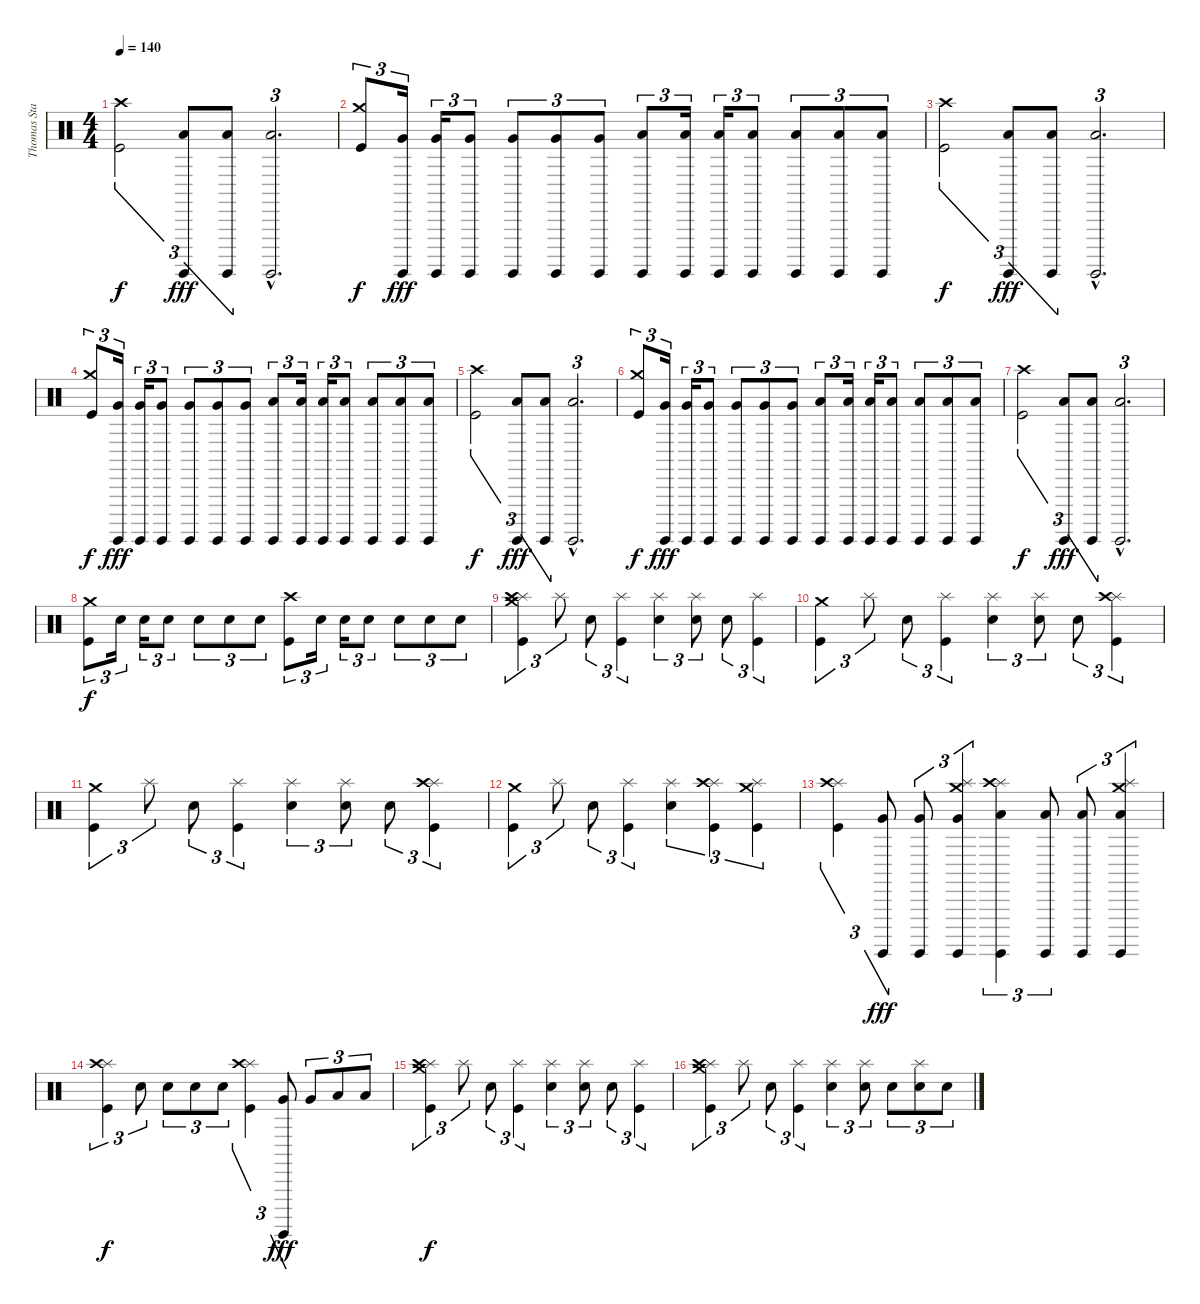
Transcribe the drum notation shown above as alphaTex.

\track ("Thomas Stauch" "Thomas Sta") {instrument percussion}
\staff {score}
\articulation defaults
\ts (4 4)
\tempo 140
\clef neutral
\ks c
("Crash high (hit)" "Kick (hit)").2{tu (3 2) dy f} ("Surdo (hit)" "Low Floor Tom (hit)").8{tu (3 2) dy fff} ("Surdo (hit)" "Low Floor Tom (hit)").8{tu (3 2)} ("Surdo (hit)"{hac} "Low Floor Tom (hit)"{hac}).2{d tu (3 2)} |
("Crash medium (hit)" "Kick (hit)").8{tu (3 2) dy f} ("Surdo (hit)" "Very Low Tom (hit)").16{tu (3 2) dy fff} ("Surdo (hit)" "Very Low Tom (hit)").16{tu (3 2)} ("Surdo (hit)" "Very Low Tom (hit)").8{tu (3 2)} ("Surdo (hit)" "Very Low Tom (hit)").8{tu (3 2)} ("Surdo (hit)" "Very Low Tom (hit)").8{tu (3 2)} ("Surdo (hit)" "Very Low Tom (hit)").8{tu (3 2)} ("Surdo (hit)" "Low Floor Tom (hit)").8{tu (3 2)} ("Surdo (hit)" "Low Floor Tom (hit)").16{tu (3 2)} ("Surdo (hit)" "Low Floor Tom (hit)").16{tu (3 2)} ("Surdo (hit)" "Low Floor Tom (hit)").8{tu (3 2)} ("Surdo (hit)" "Low Floor Tom (hit)").8{tu (3 2)} ("Surdo (hit)" "Low Floor Tom (hit)").8{tu (3 2)} ("Surdo (hit)" "Low Floor Tom (hit)").8{tu (3 2)} |
("Crash high (hit)" "Kick (hit)").2{tu (3 2) dy f} ("Surdo (hit)" "Low Floor Tom (hit)").8{tu (3 2) dy fff} ("Surdo (hit)" "Low Floor Tom (hit)").8{tu (3 2)} ("Surdo (hit)"{hac} "Low Floor Tom (hit)"{hac}).2{d tu (3 2)} |
("Crash medium (hit)" "Kick (hit)").8{tu (3 2) dy f} ("Surdo (hit)" "Very Low Tom (hit)").16{tu (3 2) dy fff} ("Surdo (hit)" "Very Low Tom (hit)").16{tu (3 2)} ("Surdo (hit)" "Very Low Tom (hit)").8{tu (3 2)} ("Surdo (hit)" "Very Low Tom (hit)").8{tu (3 2)} ("Surdo (hit)" "Very Low Tom (hit)").8{tu (3 2)} ("Surdo (hit)" "Very Low Tom (hit)").8{tu (3 2)} ("Surdo (hit)" "Low Floor Tom (hit)").8{tu (3 2)} ("Surdo (hit)" "Low Floor Tom (hit)").16{tu (3 2)} ("Surdo (hit)" "Low Floor Tom (hit)").16{tu (3 2)} ("Surdo (hit)" "Low Floor Tom (hit)").8{tu (3 2)} ("Surdo (hit)" "Low Floor Tom (hit)").8{tu (3 2)} ("Surdo (hit)" "Low Floor Tom (hit)").8{tu (3 2)} ("Surdo (hit)" "Low Floor Tom (hit)").8{tu (3 2)} |
("Crash high (hit)" "Kick (hit)").2{tu (3 2) dy f} ("Surdo (hit)" "Low Floor Tom (hit)").8{tu (3 2) dy fff} ("Surdo (hit)" "Low Floor Tom (hit)").8{tu (3 2)} ("Surdo (hit)"{hac} "Low Floor Tom (hit)"{hac}).2{d tu (3 2)} |
("Crash medium (hit)" "Kick (hit)").8{tu (3 2) dy f} ("Surdo (hit)" "Very Low Tom (hit)").16{tu (3 2) dy fff} ("Surdo (hit)" "Very Low Tom (hit)").16{tu (3 2)} ("Surdo (hit)" "Very Low Tom (hit)").8{tu (3 2)} ("Surdo (hit)" "Very Low Tom (hit)").8{tu (3 2)} ("Surdo (hit)" "Very Low Tom (hit)").8{tu (3 2)} ("Surdo (hit)" "Very Low Tom (hit)").8{tu (3 2)} ("Surdo (hit)" "Low Floor Tom (hit)").8{tu (3 2)} ("Surdo (hit)" "Low Floor Tom (hit)").16{tu (3 2)} ("Surdo (hit)" "Low Floor Tom (hit)").16{tu (3 2)} ("Surdo (hit)" "Low Floor Tom (hit)").8{tu (3 2)} ("Surdo (hit)" "Low Floor Tom (hit)").8{tu (3 2)} ("Surdo (hit)" "Low Floor Tom (hit)").8{tu (3 2)} ("Surdo (hit)" "Low Floor Tom (hit)").8{tu (3 2)} |
("Crash high (hit)" "Kick (hit)").2{tu (3 2) dy f} ("Surdo (hit)" "Low Floor Tom (hit)").8{tu (3 2) dy fff} ("Surdo (hit)" "Low Floor Tom (hit)").8{tu (3 2)} ("Surdo (hit)"{hac} "Low Floor Tom (hit)"{hac}).2{d tu (3 2)} |
("Crash medium (hit)" "Kick (hit)").8{tu (3 2) dy f} "Electric Snare (hit)".16{tu (3 2)} "Electric Snare (hit)".16{tu (3 2)} "Electric Snare (hit)".8{tu (3 2)} "Electric Snare (hit)".8{tu (3 2)} "Electric Snare (hit)".8{tu (3 2)} "Electric Snare (hit)".8{tu (3 2)} ("Crash high (hit)" "Kick (hit)").8{tu (3 2)} "Electric Snare (hit)".16{tu (3 2)} "Electric Snare (hit)".16{tu (3 2)} "Electric Snare (hit)".8{tu (3 2)} "Electric Snare (hit)".8{tu (3 2)} "Electric Snare (hit)".8{tu (3 2)} "Electric Snare (hit)".8{tu (3 2)} |
("Crash medium (hit)" "Splash (hit)" "Crash high (hit)" "Kick (hit)").4{tu (3 2)} "Splash (hit)".8{tu (3 2)} "Electric Snare (hit)".8{tu (3 2)} ("Splash (hit)" "Kick (hit)").4{tu (3 2)} ("Splash (hit)" "Electric Snare (hit)").4{tu (3 2)} ("Splash (hit)" "Electric Snare (hit)").8{tu (3 2)} "Electric Snare (hit)".8{tu (3 2)} ("Splash (hit)" "Kick (hit)").4{tu (3 2)} |
("Crash medium (hit)" "Kick (hit)").4{tu (3 2)} "Splash (hit)".8{tu (3 2)} "Electric Snare (hit)".8{tu (3 2)} ("Splash (hit)" "Kick (hit)").4{tu (3 2)} ("Splash (hit)" "Electric Snare (hit)").4{tu (3 2)} ("Splash (hit)" "Electric Snare (hit)").8{tu (3 2)} "Electric Snare (hit)".8{tu (3 2)} ("Splash (hit)" "Crash high (hit)" "Kick (hit)").4{tu (3 2)} |
("Crash medium (hit)" "Kick (hit)").4{tu (3 2)} "Splash (hit)".8{tu (3 2)} "Electric Snare (hit)".8{tu (3 2)} ("Splash (hit)" "Kick (hit)").4{tu (3 2)} ("Splash (hit)" "Electric Snare (hit)").4{tu (3 2)} ("Splash (hit)" "Electric Snare (hit)").8{tu (3 2)} "Electric Snare (hit)".8{tu (3 2)} ("Splash (hit)" "Crash high (hit)" "Kick (hit)").4{tu (3 2)} |
("Crash medium (hit)" "Kick (hit)").4{tu (3 2)} "Splash (hit)".8{tu (3 2)} "Electric Snare (hit)".8{tu (3 2)} ("Splash (hit)" "Kick (hit)").4{tu (3 2)} ("Splash (hit)" "Electric Snare (hit)").4{tu (3 2)} ("Splash (hit)" "Crash high (hit)" "Kick (hit)").4{tu (3 2)} ("Crash medium (hit)" "Splash (hit)" "Kick (hit)").4{tu (3 2)} |
("Splash (hit)" "Crash high (hit)" "Kick (hit)").4{tu (3 2)} ("Surdo (hit)" "Very Low Tom (hit)").8{tu (3 2) dy fff} ("Surdo (hit)" "Very Low Tom (hit)").8{tu (3 2)} ("Crash medium (hit)" "Splash (hit)" "Surdo (hit)" "Very Low Tom (hit)").4{tu (3 2)} ("Splash (hit)" "Crash high (hit)" "Surdo (hit)" "Low Floor Tom (hit)").4{tu (3 2)} ("Surdo (hit)" "Low Floor Tom (hit)").8{tu (3 2)} ("Surdo (hit)" "Low Floor Tom (hit)").8{tu (3 2)} ("Crash medium (hit)" "Splash (hit)" "Surdo (hit)" "Low Floor Tom (hit)").4{tu (3 2)} |
("Splash (hit)" "Crash high (hit)" "Kick (hit)").4{tu (3 2) dy f} "Electric Snare (hit)".8{tu (3 2)} "Electric Snare (hit)".8{tu (3 2)} "Electric Snare (hit)".8{tu (3 2)} "Electric Snare (hit)".8{tu (3 2)} ("Splash (hit)" "Crash high (hit)" "Kick (hit)").4{tu (3 2)} ("Surdo (hit)" "Very Low Tom (hit)").8{tu (3 2) dy fff} "Very Low Tom (hit)".8{tu (3 2)} "Low Floor Tom (hit)".8{tu (3 2)} "Low Floor Tom (hit)".8{tu (3 2)} |
("Crash medium (hit)" "Splash (hit)" "Crash high (hit)" "Kick (hit)").4{tu (3 2) dy f} "Splash (hit)".8{tu (3 2)} "Electric Snare (hit)".8{tu (3 2)} ("Splash (hit)" "Kick (hit)").4{tu (3 2)} ("Splash (hit)" "Electric Snare (hit)").4{tu (3 2)} ("Splash (hit)" "Electric Snare (hit)").8{tu (3 2)} "Electric Snare (hit)".8{tu (3 2)} ("Splash (hit)" "Kick (hit)").4{tu (3 2)} |
("Crash medium (hit)" "Splash (hit)" "Crash high (hit)" "Kick (hit)").4{tu (3 2)} "Splash (hit)".8{tu (3 2)} "Electric Snare (hit)".8{tu (3 2)} ("Splash (hit)" "Kick (hit)").4{tu (3 2)} ("Splash (hit)" "Electric Snare (hit)").4{tu (3 2)} ("Splash (hit)" "Electric Snare (hit)").8{tu (3 2)} "Electric Snare (hit)".8{tu (3 2)} ("Splash (hit)" "Electric Snare (hit)").8{tu (3 2)} "Electric Snare (hit)".8{tu (3 2)}
